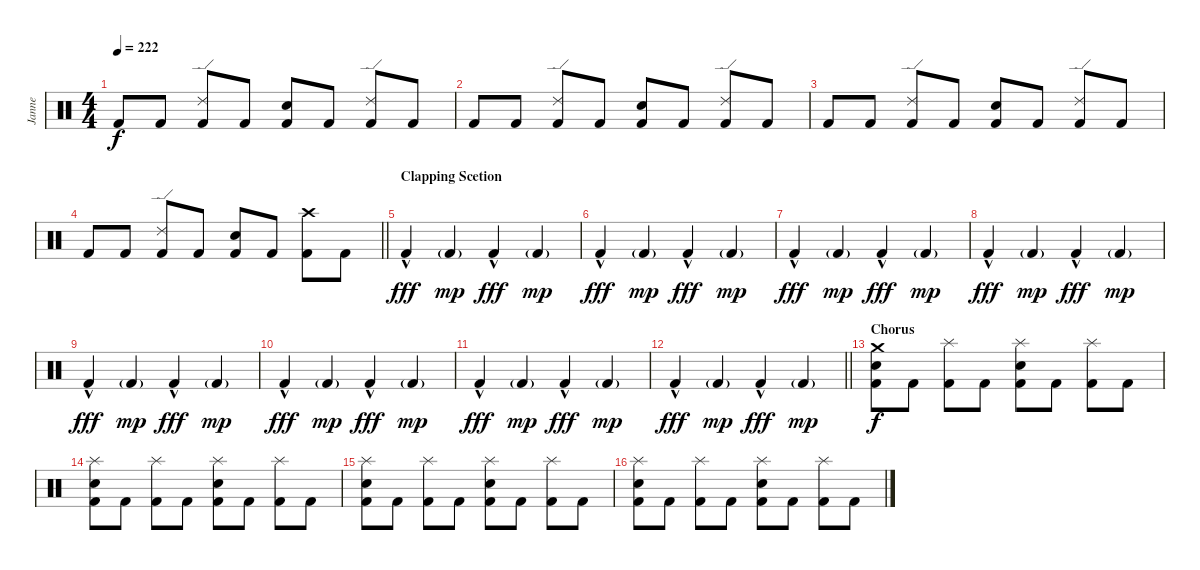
\track ("Janne" "Janne") {instrument percussion}
\staff {score}
\articulation defaults
\ts (4 4)
\tempo 222
\clef neutral
\ks c "Kick (hit) 2".8{dy f} "Kick (hit) 2".8
("Kick (hit) 2" "Ride (edge) 2").8 "Kick (hit) 2".8 ("Kick (hit) 2" "Electric Snare (hit)").8 "Kick (hit) 2".8 ("Kick (hit) 2" "Ride (edge) 2").8 "Kick (hit) 2".8 |
"Kick (hit) 2".8 "Kick (hit) 2".8 ("Kick (hit) 2" "Ride (edge) 2").8 "Kick (hit) 2".8 ("Kick (hit) 2" "Electric Snare (hit)").8 "Kick (hit) 2".8 ("Kick (hit) 2" "Ride (edge) 2").8 "Kick (hit) 2".8 |
"Kick (hit) 2".8 "Kick (hit) 2".8 ("Kick (hit) 2" "Ride (edge) 2").8 "Kick (hit) 2".8 ("Kick (hit) 2" "Electric Snare (hit)").8 "Kick (hit) 2".8 ("Kick (hit) 2" "Ride (edge) 2").8 "Kick (hit) 2".8 |
\barLineRight lightlight "Kick (hit) 2".8 "Kick (hit) 2".8
("Kick (hit) 2" "Ride (edge) 2").8 "Kick (hit) 2".8 ("Kick (hit) 2" "Electric Snare (hit)").8 "Kick (hit) 2".8 ("Kick (hit) 2" "Crash high (hit)").8 "Kick (hit) 2".8 |
\section ("" "Clapping Scetion")
"Kick (hit) 2"{hac}.4{dy fff} "Kick (hit) 2"{g}.4{dy mp} "Kick (hit) 2"{hac}.4{dy fff} "Kick (hit) 2"{g}.4{dy mp} |
"Kick (hit) 2"{hac}.4{dy fff} "Kick (hit) 2"{g}.4{dy mp} "Kick (hit) 2"{hac}.4{dy fff} "Kick (hit) 2"{g}.4{dy mp} |
"Kick (hit) 2"{hac}.4{dy fff} "Kick (hit) 2"{g}.4{dy mp} "Kick (hit) 2"{hac}.4{dy fff} "Kick (hit) 2"{g}.4{dy mp} |
"Kick (hit) 2"{hac}.4{dy fff} "Kick (hit) 2"{g}.4{dy mp} "Kick (hit) 2"{hac}.4{dy fff} "Kick (hit) 2"{g}.4{dy mp} |
"Kick (hit) 2"{hac}.4{dy fff} "Kick (hit) 2"{g}.4{dy mp} "Kick (hit) 2"{hac}.4{dy fff} "Kick (hit) 2"{g}.4{dy mp} |
"Kick (hit) 2"{hac}.4{dy fff} "Kick (hit) 2"{g}.4{dy mp} "Kick (hit) 2"{hac}.4{dy fff} "Kick (hit) 2"{g}.4{dy mp} |
"Kick (hit) 2"{hac}.4{dy fff} "Kick (hit) 2"{g}.4{dy mp} "Kick (hit) 2"{hac}.4{dy fff} "Kick (hit) 2"{g}.4{dy mp} |
\barLineRight lightlight "Kick (hit) 2"{hac}.4{dy fff} "Kick (hit) 2"{g}.4{dy mp} "Kick (hit) 2"{hac}.4{dy fff} "Kick (hit) 2"{g}.4{dy mp}
|
\section ("" "Chorus")
("Kick (hit) 2" "Electric Snare (hit)" "Crash medium (hit)").8{dy f} "Kick (hit) 2".8 ("Kick (hit) 2" "Splash (hit)").8 "Kick (hit) 2".8 ("Kick (hit) 2" "Electric Snare (hit)" "Splash (hit)").8 "Kick (hit) 2".8 ("Kick (hit) 2" "Splash (hit)").8 "Kick (hit) 2".8 |
("Kick (hit) 2" "Electric Snare (hit)" "Splash (hit)").8 "Kick (hit) 2".8 ("Kick (hit) 2" "Splash (hit)").8 "Kick (hit) 2".8 ("Kick (hit) 2" "Electric Snare (hit)" "Splash (hit)").8 "Kick (hit) 2".8 ("Kick (hit) 2" "Splash (hit)").8 "Kick (hit) 2".8 |
("Kick (hit) 2" "Electric Snare (hit)" "Splash (hit)").8 "Kick (hit) 2".8 ("Kick (hit) 2" "Splash (hit)").8 "Kick (hit) 2".8 ("Kick (hit) 2" "Electric Snare (hit)" "Splash (hit)").8 "Kick (hit) 2".8 ("Kick (hit) 2" "Splash (hit)").8 "Kick (hit) 2".8 |
("Kick (hit) 2" "Electric Snare (hit)" "Splash (hit)").8 "Kick (hit) 2".8 ("Kick (hit) 2" "Splash (hit)").8 "Kick (hit) 2".8 ("Kick (hit) 2" "Electric Snare (hit)" "Splash (hit)").8 "Kick (hit) 2".8 ("Kick (hit) 2" "Splash (hit)").8 "Kick (hit) 2".8
